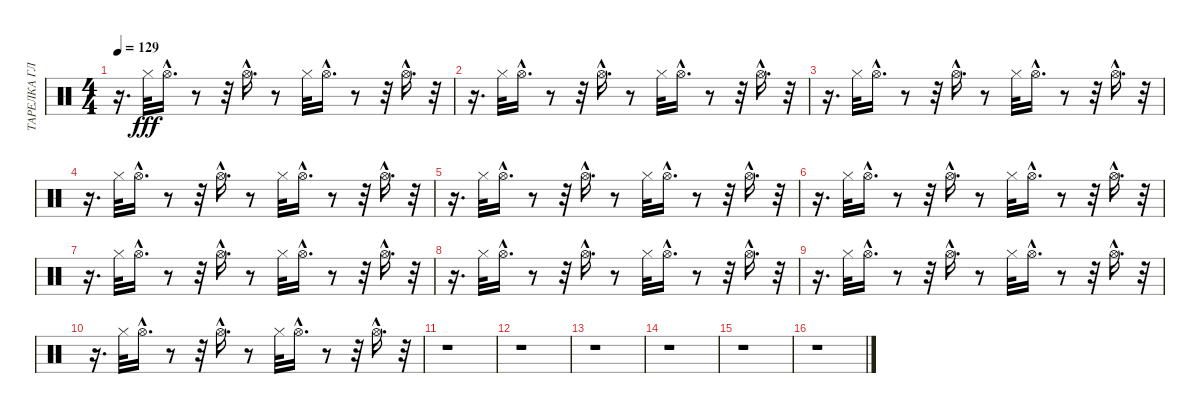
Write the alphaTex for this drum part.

\track ("ТАРЕЛКА ГЛУХАЯ" "ТАРЕЛКА ГЛ") {instrument percussion}
\staff {score}
\articulation defaults
\ts (4 4)
\tempo 129
\clef neutral
\ks c
r.16{d dy fff} "Hi-Hat (closed)".32 "Hi-Hat (open)"{hac}.16{d} r.8 r.32 "Hi-Hat (open)"{hac}.16{d} r.8 "Hi-Hat (closed)".32 "Hi-Hat (open)"{hac}.16{d} r.8 r.32 "Hi-Hat (open)"{hac}.16{d} r.32 |
r.16{d} "Hi-Hat (closed)".32 "Hi-Hat (open)"{hac}.16{d} r.8 r.32 "Hi-Hat (open)"{hac}.16{d} r.8 "Hi-Hat (closed)".32 "Hi-Hat (open)"{hac}.16{d} r.8 r.32 "Hi-Hat (open)"{hac}.16{d} r.32 |
r.16{d} "Hi-Hat (closed)".32 "Hi-Hat (open)"{hac}.16{d} r.8 r.32 "Hi-Hat (open)"{hac}.16{d} r.8 "Hi-Hat (closed)".32 "Hi-Hat (open)"{hac}.16{d} r.8 r.32 "Hi-Hat (open)"{hac}.16{d} r.32 |
r.16{d} "Hi-Hat (closed)".32 "Hi-Hat (open)"{hac}.16{d} r.8 r.32 "Hi-Hat (open)"{hac}.16{d} r.8 "Hi-Hat (closed)".32 "Hi-Hat (open)"{hac}.16{d} r.8 r.32 "Hi-Hat (open)"{hac}.16{d} r.32 |
r.16{d} "Hi-Hat (closed)".32 "Hi-Hat (open)"{hac}.16{d} r.8 r.32 "Hi-Hat (open)"{hac}.16{d} r.8 "Hi-Hat (closed)".32 "Hi-Hat (open)"{hac}.16{d} r.8 r.32 "Hi-Hat (open)"{hac}.16{d} r.32 |
r.16{d} "Hi-Hat (closed)".32 "Hi-Hat (open)"{hac}.16{d} r.8 r.32 "Hi-Hat (open)"{hac}.16{d} r.8 "Hi-Hat (closed)".32 "Hi-Hat (open)"{hac}.16{d} r.8 r.32 "Hi-Hat (open)"{hac}.16{d} r.32 |
r.16{d} "Hi-Hat (closed)".32 "Hi-Hat (open)"{hac}.16{d} r.8 r.32 "Hi-Hat (open)"{hac}.16{d} r.8 "Hi-Hat (closed)".32 "Hi-Hat (open)"{hac}.16{d} r.8 r.32 "Hi-Hat (open)"{hac}.16{d} r.32 |
r.16{d} "Hi-Hat (closed)".32 "Hi-Hat (open)"{hac}.16{d} r.8 r.32 "Hi-Hat (open)"{hac}.16{d} r.8 "Hi-Hat (closed)".32 "Hi-Hat (open)"{hac}.16{d} r.8 r.32 "Hi-Hat (open)"{hac}.16{d} r.32 |
r.16{d} "Hi-Hat (closed)".32 "Hi-Hat (open)"{hac}.16{d} r.8 r.32 "Hi-Hat (open)"{hac}.16{d} r.8 "Hi-Hat (closed)".32 "Hi-Hat (open)"{hac}.16{d} r.8 r.32 "Hi-Hat (open)"{hac}.16{d} r.32 |
r.16{d} "Hi-Hat (closed)".32 "Hi-Hat (open)"{hac}.16{d} r.8 r.32 "Hi-Hat (open)"{hac}.16{d} r.8 "Hi-Hat (closed)".32 "Hi-Hat (open)"{hac}.16{d} r.8 r.32 "Hi-Hat (open)"{hac}.16{d} r.32 |
r.1 |
r.1 |
r.1 |
r.1 |
r.1 |
r.1
